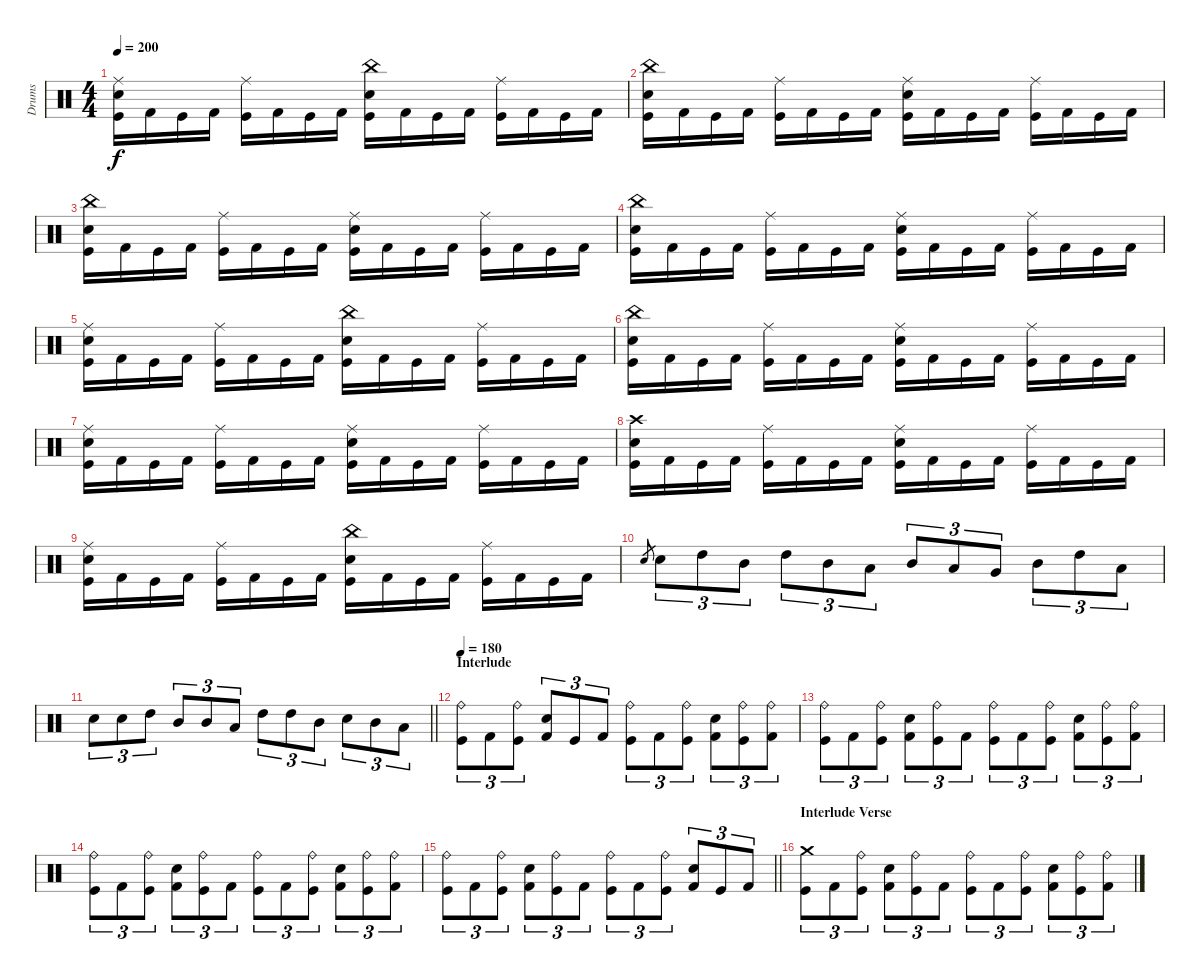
\track ("Drums" "Drums") {instrument percussion}
\staff {score}
\articulation defaults
\ts (4 4)
\tempo 200
\clef neutral
\ks c
("Ride (middle)" "Electric Snare (hit)" "Kick (hit)").16{dy f} "Kick (hit) 2".16 "Kick (hit)".16 "Kick (hit) 2".16 ("Ride (middle)" "Kick (hit)").16 "Kick (hit) 2".16 "Kick (hit)".16 "Kick (hit) 2".16 ("China (hit)" "Electric Snare (hit)" "Kick (hit)").16 "Kick (hit) 2".16 "Kick (hit)".16 "Kick (hit) 2".16 ("Ride (middle)" "Kick (hit)").16 "Kick (hit) 2".16 "Kick (hit)".16 "Kick (hit) 2".16 |
("China (hit)" "Electric Snare (hit)" "Kick (hit)").16 "Kick (hit) 2".16 "Kick (hit)".16 "Kick (hit) 2".16 ("Ride (middle)" "Kick (hit)").16 "Kick (hit) 2".16 "Kick (hit)".16 "Kick (hit) 2".16 ("Ride (middle)" "Electric Snare (hit)" "Kick (hit)").16 "Kick (hit) 2".16 "Kick (hit)".16 "Kick (hit) 2".16 ("Ride (middle)" "Kick (hit)").16 "Kick (hit) 2".16 "Kick (hit)".16 "Kick (hit) 2".16 |
("China (hit)" "Electric Snare (hit)" "Kick (hit)").16 "Kick (hit) 2".16 "Kick (hit)".16 "Kick (hit) 2".16 ("Ride (middle)" "Kick (hit)").16 "Kick (hit) 2".16 "Kick (hit)".16 "Kick (hit) 2".16 ("Ride (middle)" "Electric Snare (hit)" "Kick (hit)").16 "Kick (hit) 2".16 "Kick (hit)".16 "Kick (hit) 2".16 ("Ride (middle)" "Kick (hit)").16 "Kick (hit) 2".16 "Kick (hit)".16 "Kick (hit) 2".16 |
("China (hit)" "Electric Snare (hit)" "Kick (hit)").16 "Kick (hit) 2".16 "Kick (hit)".16 "Kick (hit) 2".16 ("Ride (middle)" "Kick (hit)").16 "Kick (hit) 2".16 "Kick (hit)".16 "Kick (hit) 2".16 ("Ride (middle)" "Electric Snare (hit)" "Kick (hit)").16 "Kick (hit) 2".16 "Kick (hit)".16 "Kick (hit) 2".16 ("Ride (middle)" "Kick (hit)").16 "Kick (hit) 2".16 "Kick (hit)".16 "Kick (hit) 2".16 |
("Ride (middle)" "Electric Snare (hit)" "Kick (hit)").16 "Kick (hit) 2".16 "Kick (hit)".16 "Kick (hit) 2".16 ("Ride (middle)" "Kick (hit)").16 "Kick (hit) 2".16 "Kick (hit)".16 "Kick (hit) 2".16 ("China (hit)" "Electric Snare (hit)" "Kick (hit)").16 "Kick (hit) 2".16 "Kick (hit)".16 "Kick (hit) 2".16 ("Ride (middle)" "Kick (hit)").16 "Kick (hit) 2".16 "Kick (hit)".16 "Kick (hit) 2".16 |
("China (hit)" "Electric Snare (hit)" "Kick (hit)").16 "Kick (hit) 2".16 "Kick (hit)".16 "Kick (hit) 2".16 ("Ride (middle)" "Kick (hit)").16 "Kick (hit) 2".16 "Kick (hit)".16 "Kick (hit) 2".16 ("Ride (middle)" "Electric Snare (hit)" "Kick (hit)").16 "Kick (hit) 2".16 "Kick (hit)".16 "Kick (hit) 2".16 ("Ride (middle)" "Kick (hit)").16 "Kick (hit) 2".16 "Kick (hit)".16 "Kick (hit) 2".16 |
("Ride (middle)" "Electric Snare (hit)" "Kick (hit)").16 "Kick (hit) 2".16 "Kick (hit)".16 "Kick (hit) 2".16 ("Ride (middle)" "Kick (hit)").16 "Kick (hit) 2".16 "Kick (hit)".16 "Kick (hit) 2".16 ("Ride (middle)" "Electric Snare (hit)" "Kick (hit)").16 "Kick (hit) 2".16 "Kick (hit)".16 "Kick (hit) 2".16 ("Ride (middle)" "Kick (hit)").16 "Kick (hit) 2".16 "Kick (hit)".16 "Kick (hit) 2".16 |
("Crash high (hit)" "Electric Snare (hit)" "Kick (hit)").16 "Kick (hit) 2".16 "Kick (hit)".16 "Kick (hit) 2".16 ("Ride (middle)" "Kick (hit)").16 "Kick (hit) 2".16 "Kick (hit)".16 "Kick (hit) 2".16 ("Ride (middle)" "Electric Snare (hit)" "Kick (hit)").16 "Kick (hit) 2".16 "Kick (hit)".16 "Kick (hit) 2".16 ("Ride (middle)" "Kick (hit)").16 "Kick (hit) 2".16 "Kick (hit)".16 "Kick (hit) 2".16 |
("Ride (middle)" "Electric Snare (hit)" "Kick (hit)").16 "Kick (hit) 2".16 "Kick (hit)".16 "Kick (hit) 2".16 ("Ride (middle)" "Kick (hit)").16 "Kick (hit) 2".16 "Kick (hit)".16 "Kick (hit) 2".16 ("China (hit)" "Electric Snare (hit)" "Kick (hit)").16 "Kick (hit) 2".16 "Kick (hit)".16 "Kick (hit) 2".16 ("Ride (middle)" "Kick (hit)").16 "Kick (hit) 2".16 "Kick (hit)".16 "Kick (hit) 2".16 |
"Electric Snare (hit)".8{gr} "Electric Snare (hit)".8{tu (3 2)} "High Tom (hit)".8{tu (3 2)} "Mid Tom (hit)".8{tu (3 2)} "High Tom (hit)".8{tu (3 2)} "Mid Tom (hit)".8{tu (3 2)} "Low Tom (hit)".8{tu (3 2)} "Mid Tom (hit)".8{tu (3 2)} "Low Tom (hit)".8{tu (3 2)} "Very Low Tom (hit)".8{tu (3 2)} "Mid Tom (hit)".8{tu (3 2)} "High Tom (hit)".8{tu (3 2)} "Low Tom (hit)".8{tu (3 2)} |
\barLineRight lightlight "Electric Snare (hit)".8{tu (3 2)} "Electric Snare (hit)".8{tu (3 2)} "High Tom (hit)".8{tu (3 2)} "Mid Tom (hit)".8{tu (3 2)} "Mid Tom (hit)".8{tu (3 2)} "Low Tom (hit)".8{tu (3 2)} "High Tom (hit)".8{tu (3 2)} "High Tom (hit)".8{tu (3 2)} "Mid Tom (hit)".8{tu (3 2)} "Electric Snare (hit)".8{tu (3 2)} "Mid Tom (hit)".8{tu (3 2)} "Low Tom (hit)".8{tu (3 2)}
|
\section ("" "Interlude")
\tempo 180
("Ride (bell)" "Kick (hit)").8{tu (3 2)} "Kick (hit) 2".8{tu (3 2)} ("Ride (bell)" "Kick (hit)").8{tu (3 2)} ("Electric Snare (hit)" "Kick (hit) 2").8{tu (3 2)} "Kick (hit)".8{tu (3 2)} "Kick (hit) 2".8{tu (3 2)} ("Ride (bell)" "Kick (hit)").8{tu (3 2)} "Kick (hit) 2".8{tu (3 2)} ("Ride (bell)" "Kick (hit)").8{tu (3 2)} ("Electric Snare (hit)" "Kick (hit) 2").8{tu (3 2)} ("Ride (bell)" "Kick (hit)").8{tu (3 2)} ("Ride (bell)" "Kick (hit) 2").8{tu (3 2)} |
("Ride (bell)" "Kick (hit)").8{tu (3 2)} "Kick (hit) 2".8{tu (3 2)} ("Ride (bell)" "Kick (hit)").8{tu (3 2)} ("Electric Snare (hit)" "Kick (hit) 2").8{tu (3 2)} ("Ride (bell)" "Kick (hit)").8{tu (3 2)} "Kick (hit) 2".8{tu (3 2)} ("Ride (bell)" "Kick (hit)").8{tu (3 2)} "Kick (hit) 2".8{tu (3 2)} ("Ride (bell)" "Kick (hit)").8{tu (3 2)} ("Electric Snare (hit)" "Kick (hit) 2").8{tu (3 2)} ("Ride (bell)" "Kick (hit)").8{tu (3 2)} ("Ride (bell)" "Kick (hit) 2").8{tu (3 2)} |
("Ride (bell)" "Kick (hit)").8{tu (3 2)} "Kick (hit) 2".8{tu (3 2)} ("Ride (bell)" "Kick (hit)").8{tu (3 2)} ("Electric Snare (hit)" "Kick (hit) 2").8{tu (3 2)} ("Ride (bell)" "Kick (hit)").8{tu (3 2)} "Kick (hit) 2".8{tu (3 2)} ("Ride (bell)" "Kick (hit)").8{tu (3 2)} "Kick (hit) 2".8{tu (3 2)} ("Ride (bell)" "Kick (hit)").8{tu (3 2)} ("Electric Snare (hit)" "Kick (hit) 2").8{tu (3 2)} ("Ride (bell)" "Kick (hit)").8{tu (3 2)} ("Ride (bell)" "Kick (hit) 2").8{tu (3 2)} |
\barLineRight lightlight
("Ride (bell)" "Kick (hit)").8{tu (3 2)} "Kick (hit) 2".8{tu (3 2)} ("Ride (bell)" "Kick (hit)").8{tu (3 2)} ("Electric Snare (hit)" "Kick (hit) 2").8{tu (3 2)} ("Ride (bell)" "Kick (hit)").8{tu (3 2)} "Kick (hit) 2".8{tu (3 2)} ("Ride (bell)" "Kick (hit)").8{tu (3 2)} "Kick (hit) 2".8{tu (3 2)} ("Ride (bell)" "Kick (hit)").8{tu (3 2)} ("Electric Snare (hit)" "Kick (hit) 2").8{tu (3 2)} "Kick (hit)".8{tu (3 2)} "Kick (hit) 2".8{tu (3 2)} |
\section ("" "Interlude Verse")
("Crash medium (hit)" "Kick (hit)").8{tu (3 2)} "Kick (hit) 2".8{tu (3 2)} ("Ride (bell)" "Kick (hit)").8{tu (3 2)} ("Electric Snare (hit)" "Kick (hit) 2").8{tu (3 2)} ("Ride (bell)" "Kick (hit)").8{tu (3 2)} "Kick (hit) 2".8{tu (3 2)} ("Ride (bell)" "Kick (hit)").8{tu (3 2)} "Kick (hit) 2".8{tu (3 2)} ("Ride (bell)" "Kick (hit)").8{tu (3 2)} ("Electric Snare (hit)" "Kick (hit) 2").8{tu (3 2)} ("Ride (bell)" "Kick (hit)").8{tu (3 2)} ("Ride (bell)" "Kick (hit) 2").8{tu (3 2)}
